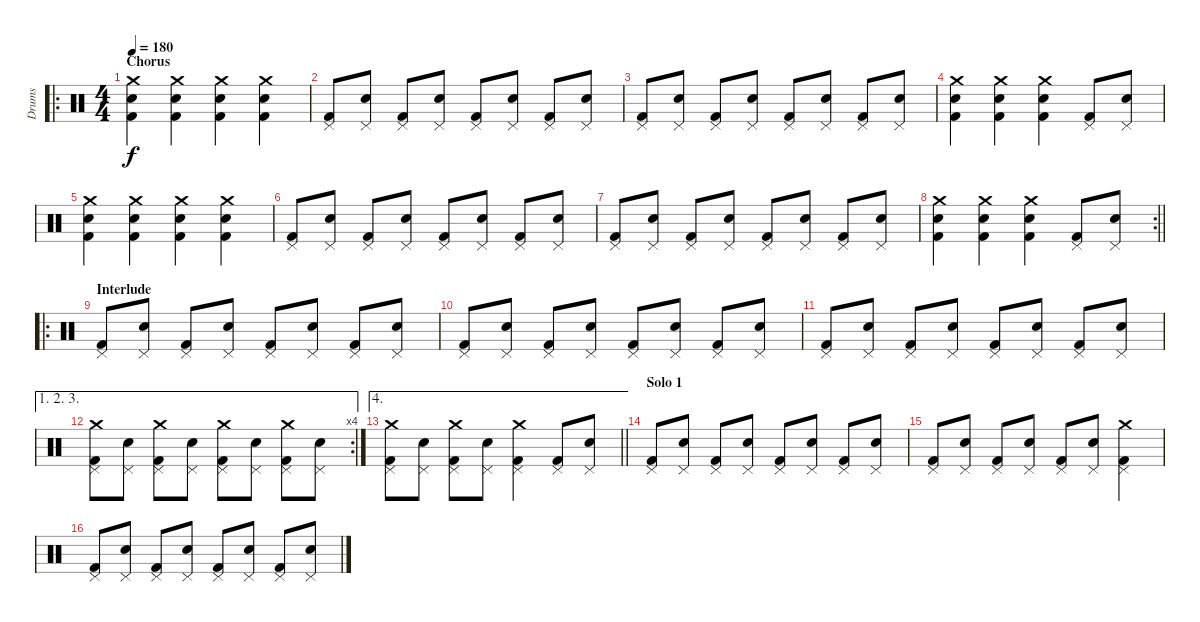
\track ("Drums" "Drums") {instrument percussion}
\staff {score}
\articulation defaults
\ro
\ts (4 4)
\section ("" "Chorus")
\tempo 180
\clef neutral
\ks c
("Crash medium (hit)" "Electric Snare (hit)" "Kick (hit) 2").4{dy f} ("Crash medium (hit)" "Electric Snare (hit)" "Kick (hit) 2").4 ("Crash medium (hit)" "Electric Snare (hit)" "Kick (hit) 2").4 ("Crash medium (hit)" "Electric Snare (hit)" "Kick (hit) 2").4 |
("Kick (hit) 2" "Pedal Hi-Hat (hit)").8 ("Snare (hit) 2" "Pedal Hi-Hat (hit)").8 ("Kick (hit) 2" "Pedal Hi-Hat (hit)").8 ("Snare (hit) 2" "Pedal Hi-Hat (hit)").8 ("Kick (hit) 2" "Pedal Hi-Hat (hit)").8 ("Snare (hit) 2" "Pedal Hi-Hat (hit)").8 ("Kick (hit) 2" "Pedal Hi-Hat (hit)").8 ("Snare (hit) 2" "Pedal Hi-Hat (hit)").8 |
("Kick (hit) 2" "Pedal Hi-Hat (hit)").8 ("Snare (hit) 2" "Pedal Hi-Hat (hit)").8 ("Kick (hit) 2" "Pedal Hi-Hat (hit)").8 ("Snare (hit) 2" "Pedal Hi-Hat (hit)").8 ("Kick (hit) 2" "Pedal Hi-Hat (hit)").8 ("Snare (hit) 2" "Pedal Hi-Hat (hit)").8 ("Kick (hit) 2" "Pedal Hi-Hat (hit)").8 ("Snare (hit) 2" "Pedal Hi-Hat (hit)").8 |
("Crash medium (hit)" "Electric Snare (hit)" "Kick (hit) 2").4 ("Crash medium (hit)" "Electric Snare (hit)" "Kick (hit) 2").4 ("Crash medium (hit)" "Electric Snare (hit)" "Kick (hit) 2").4 ("Kick (hit) 2" "Pedal Hi-Hat (hit)").8 ("Snare (hit) 2" "Pedal Hi-Hat (hit)").8 |
("Crash medium (hit)" "Electric Snare (hit)" "Kick (hit) 2").4 ("Crash medium (hit)" "Electric Snare (hit)" "Kick (hit) 2").4 ("Crash medium (hit)" "Electric Snare (hit)" "Kick (hit) 2").4 ("Crash medium (hit)" "Electric Snare (hit)" "Kick (hit) 2").4 |
("Kick (hit) 2" "Pedal Hi-Hat (hit)").8 ("Snare (hit) 2" "Pedal Hi-Hat (hit)").8 ("Kick (hit) 2" "Pedal Hi-Hat (hit)").8 ("Snare (hit) 2" "Pedal Hi-Hat (hit)").8 ("Kick (hit) 2" "Pedal Hi-Hat (hit)").8 ("Snare (hit) 2" "Pedal Hi-Hat (hit)").8 ("Kick (hit) 2" "Pedal Hi-Hat (hit)").8 ("Snare (hit) 2" "Pedal Hi-Hat (hit)").8 |
("Kick (hit) 2" "Pedal Hi-Hat (hit)").8 ("Snare (hit) 2" "Pedal Hi-Hat (hit)").8 ("Kick (hit) 2" "Pedal Hi-Hat (hit)").8 ("Snare (hit) 2" "Pedal Hi-Hat (hit)").8 ("Kick (hit) 2" "Pedal Hi-Hat (hit)").8 ("Snare (hit) 2" "Pedal Hi-Hat (hit)").8 ("Kick (hit) 2" "Pedal Hi-Hat (hit)").8 ("Snare (hit) 2" "Pedal Hi-Hat (hit)").8 |
\rc 2
\barLineRight lightlight
("Crash medium (hit)" "Electric Snare (hit)" "Kick (hit) 2").4 ("Crash medium (hit)" "Electric Snare (hit)" "Kick (hit) 2").4 ("Crash medium (hit)" "Electric Snare (hit)" "Kick (hit) 2").4 ("Kick (hit) 2" "Pedal Hi-Hat (hit)").8 ("Snare (hit) 2" "Pedal Hi-Hat (hit)").8 |
\ro
\section ("" "Interlude")
("Kick (hit) 2" "Pedal Hi-Hat (hit)").8 ("Snare (hit) 2" "Pedal Hi-Hat (hit)").8 ("Kick (hit) 2" "Pedal Hi-Hat (hit)").8 ("Snare (hit) 2" "Pedal Hi-Hat (hit)").8 ("Kick (hit) 2" "Pedal Hi-Hat (hit)").8 ("Snare (hit) 2" "Pedal Hi-Hat (hit)").8 ("Kick (hit) 2" "Pedal Hi-Hat (hit)").8 ("Snare (hit) 2" "Pedal Hi-Hat (hit)").8 |
("Kick (hit) 2" "Pedal Hi-Hat (hit)").8 ("Snare (hit) 2" "Pedal Hi-Hat (hit)").8 ("Kick (hit) 2" "Pedal Hi-Hat (hit)").8 ("Snare (hit) 2" "Pedal Hi-Hat (hit)").8 ("Kick (hit) 2" "Pedal Hi-Hat (hit)").8 ("Snare (hit) 2" "Pedal Hi-Hat (hit)").8 ("Kick (hit) 2" "Pedal Hi-Hat (hit)").8 ("Snare (hit) 2" "Pedal Hi-Hat (hit)").8 |
("Kick (hit) 2" "Pedal Hi-Hat (hit)").8 ("Snare (hit) 2" "Pedal Hi-Hat (hit)").8 ("Kick (hit) 2" "Pedal Hi-Hat (hit)").8 ("Snare (hit) 2" "Pedal Hi-Hat (hit)").8 ("Kick (hit) 2" "Pedal Hi-Hat (hit)").8 ("Snare (hit) 2" "Pedal Hi-Hat (hit)").8 ("Kick (hit) 2" "Pedal Hi-Hat (hit)").8 ("Snare (hit) 2" "Pedal Hi-Hat (hit)").8 |
\ae (1 2 3)
\rc 4
("Crash medium (hit)" "Pedal Hi-Hat (hit)" "Kick (hit) 2").8 ("Snare (hit) 2" "Pedal Hi-Hat (hit)").8 ("Crash medium (hit)" "Pedal Hi-Hat (hit)" "Kick (hit) 2").8 ("Snare (hit) 2" "Pedal Hi-Hat (hit)").8 ("Crash medium (hit)" "Pedal Hi-Hat (hit)" "Kick (hit) 2").8 ("Snare (hit) 2" "Pedal Hi-Hat (hit)").8 ("Crash medium (hit)" "Pedal Hi-Hat (hit)" "Kick (hit) 2").8 ("Snare (hit) 2" "Pedal Hi-Hat (hit)").8 |
\ae 4
\barLineRight lightlight
("Crash medium (hit)" "Pedal Hi-Hat (hit)" "Kick (hit) 2").8 ("Snare (hit) 2" "Pedal Hi-Hat (hit)").8 ("Crash medium (hit)" "Pedal Hi-Hat (hit)" "Kick (hit) 2").8 ("Snare (hit) 2" "Pedal Hi-Hat (hit)").8 ("Crash medium (hit)" "Pedal Hi-Hat (hit)" "Kick (hit) 2").4 ("Kick (hit) 2" "Pedal Hi-Hat (hit)").8 ("Snare (hit) 2" "Pedal Hi-Hat (hit)").8 |
\section ("" "Solo 1")
("Kick (hit) 2" "Pedal Hi-Hat (hit)").8 ("Snare (hit) 2" "Pedal Hi-Hat (hit)").8 ("Kick (hit) 2" "Pedal Hi-Hat (hit)").8 ("Snare (hit) 2" "Pedal Hi-Hat (hit)").8 ("Kick (hit) 2" "Pedal Hi-Hat (hit)").8 ("Snare (hit) 2" "Pedal Hi-Hat (hit)").8 ("Kick (hit) 2" "Pedal Hi-Hat (hit)").8 ("Snare (hit) 2" "Pedal Hi-Hat (hit)").8 |
("Kick (hit) 2" "Pedal Hi-Hat (hit)").8 ("Snare (hit) 2" "Pedal Hi-Hat (hit)").8 ("Kick (hit) 2" "Pedal Hi-Hat (hit)").8 ("Snare (hit) 2" "Pedal Hi-Hat (hit)").8 ("Kick (hit) 2" "Pedal Hi-Hat (hit)").8 ("Snare (hit) 2" "Pedal Hi-Hat (hit)").8 ("Kick (hit) 2" "Pedal Hi-Hat (hit)" "Crash medium (hit)").4 |
("Kick (hit) 2" "Pedal Hi-Hat (hit)").8 ("Snare (hit) 2" "Pedal Hi-Hat (hit)").8 ("Kick (hit) 2" "Pedal Hi-Hat (hit)").8 ("Snare (hit) 2" "Pedal Hi-Hat (hit)").8 ("Kick (hit) 2" "Pedal Hi-Hat (hit)").8 ("Snare (hit) 2" "Pedal Hi-Hat (hit)").8 ("Kick (hit) 2" "Pedal Hi-Hat (hit)").8 ("Snare (hit) 2" "Pedal Hi-Hat (hit)").8
